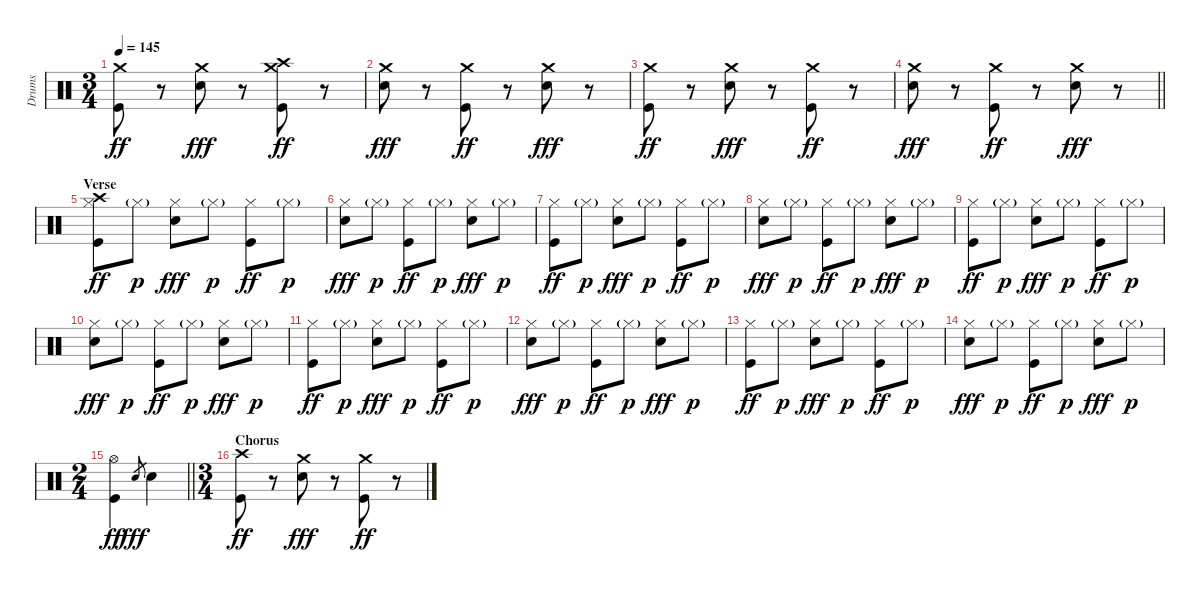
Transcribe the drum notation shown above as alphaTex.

\track ("Drums" "Drums") {instrument percussion}
\staff {score}
\articulation defaults
\ts (3 4)
\tempo 145
\clef neutral
\ks c
("Crash medium (hit)" "Kick (hit)").8{dy ff} r.8 ("Crash medium (hit)" "Electric Snare (hit)").8{dy fff} r.8 ("Crash high (hit)" "Crash medium (hit)" "Kick (hit)").8{dy ff} r.8 |
("Crash medium (hit)" "Electric Snare (hit)").8{dy fff} r.8 ("Crash medium (hit)" "Kick (hit)").8{dy ff} r.8 ("Crash medium (hit)" "Electric Snare (hit)").8{dy fff} r.8 |
("Crash medium (hit)" "Kick (hit)").8{dy ff} r.8 ("Crash medium (hit)" "Electric Snare (hit)").8{dy fff} r.8 ("Crash medium (hit)" "Kick (hit)").8{dy ff} r.8 |
\barLineRight lightlight
("Crash medium (hit)" "Electric Snare (hit)").8{dy fff} r.8 ("Crash medium (hit)" "Kick (hit)").8{dy ff} r.8 ("Crash medium (hit)" "Electric Snare (hit)").8{dy fff} r.8 |
\section ("" "Verse")
("Crash high (hit)" "Hi-Hat (closed)" "Kick (hit)").8{dy ff} "Hi-Hat (closed)"{g}.8{dy p} ("Hi-Hat (closed)" "Electric Snare (hit)").8{dy fff} "Hi-Hat (closed)"{g}.8{dy p} ("Hi-Hat (closed)" "Kick (hit)").8{dy ff} "Hi-Hat (closed)"{g}.8{dy p} |
("Hi-Hat (closed)" "Electric Snare (hit)").8{dy fff} "Hi-Hat (closed)"{g}.8{dy p} ("Hi-Hat (closed)" "Kick (hit)").8{dy ff} "Hi-Hat (closed)"{g}.8{dy p} ("Hi-Hat (closed)" "Electric Snare (hit)").8{dy fff} "Hi-Hat (closed)"{g}.8{dy p} |
("Hi-Hat (closed)" "Kick (hit)").8{dy ff} "Hi-Hat (closed)"{g}.8{dy p} ("Hi-Hat (closed)" "Electric Snare (hit)").8{dy fff} "Hi-Hat (closed)"{g}.8{dy p} ("Hi-Hat (closed)" "Kick (hit)").8{dy ff} "Hi-Hat (closed)"{g}.8{dy p} |
("Hi-Hat (closed)" "Electric Snare (hit)").8{dy fff} "Hi-Hat (closed)"{g}.8{dy p} ("Hi-Hat (closed)" "Kick (hit)").8{dy ff} "Hi-Hat (closed)"{g}.8{dy p} ("Hi-Hat (closed)" "Electric Snare (hit)").8{dy fff} "Hi-Hat (closed)"{g}.8{dy p} |
("Hi-Hat (closed)" "Kick (hit)").8{dy ff} "Hi-Hat (closed)"{g}.8{dy p} ("Hi-Hat (closed)" "Electric Snare (hit)").8{dy fff} "Hi-Hat (closed)"{g}.8{dy p} ("Hi-Hat (closed)" "Kick (hit)").8{dy ff} "Hi-Hat (closed)"{g}.8{dy p} |
("Hi-Hat (closed)" "Electric Snare (hit)").8{dy fff} "Hi-Hat (closed)"{g}.8{dy p} ("Hi-Hat (closed)" "Kick (hit)").8{dy ff} "Hi-Hat (closed)"{g}.8{dy p} ("Hi-Hat (closed)" "Electric Snare (hit)").8{dy fff} "Hi-Hat (closed)"{g}.8{dy p} |
("Hi-Hat (closed)" "Kick (hit)").8{dy ff} "Hi-Hat (closed)"{g}.8{dy p} ("Hi-Hat (closed)" "Electric Snare (hit)").8{dy fff} "Hi-Hat (closed)"{g}.8{dy p} ("Hi-Hat (closed)" "Kick (hit)").8{dy ff} "Hi-Hat (closed)"{g}.8{dy p} |
("Hi-Hat (closed)" "Electric Snare (hit)").8{dy fff} "Hi-Hat (closed)"{g}.8{dy p} ("Hi-Hat (closed)" "Kick (hit)").8{dy ff} "Hi-Hat (closed)"{g}.8{dy p} ("Hi-Hat (closed)" "Electric Snare (hit)").8{dy fff} "Hi-Hat (closed)"{g}.8{dy p} |
("Hi-Hat (closed)" "Kick (hit)").8{dy ff} "Hi-Hat (closed)"{g}.8{dy p} ("Hi-Hat (closed)" "Electric Snare (hit)").8{dy fff} "Hi-Hat (closed)"{g}.8{dy p} ("Hi-Hat (closed)" "Kick (hit)").8{dy ff} "Hi-Hat (closed)"{g}.8{dy p} |
("Hi-Hat (closed)" "Electric Snare (hit)").8{dy fff} "Hi-Hat (closed)"{g}.8{dy p} ("Hi-Hat (closed)" "Kick (hit)").8{dy ff} "Hi-Hat (closed)"{g}.8{dy p} ("Hi-Hat (closed)" "Electric Snare (hit)").8{dy fff} "Hi-Hat (closed)"{g}.8{dy p} |
\ts (2 4)
\barLineRight lightlight
("Hi-Hat (open)" "Kick (hit)").4{dy ff} "Electric Snare (hit)".8{gr dy fff} "Electric Snare (hit)".4 |
\ts (3 4)
\section ("" "Chorus")
("Crash high (hit)" "Kick (hit)").8{dy ff} r.8 ("Crash medium (hit)" "Electric Snare (hit)").8{dy fff} r.8 ("Crash medium (hit)" "Kick (hit)").8{dy ff} r.8
